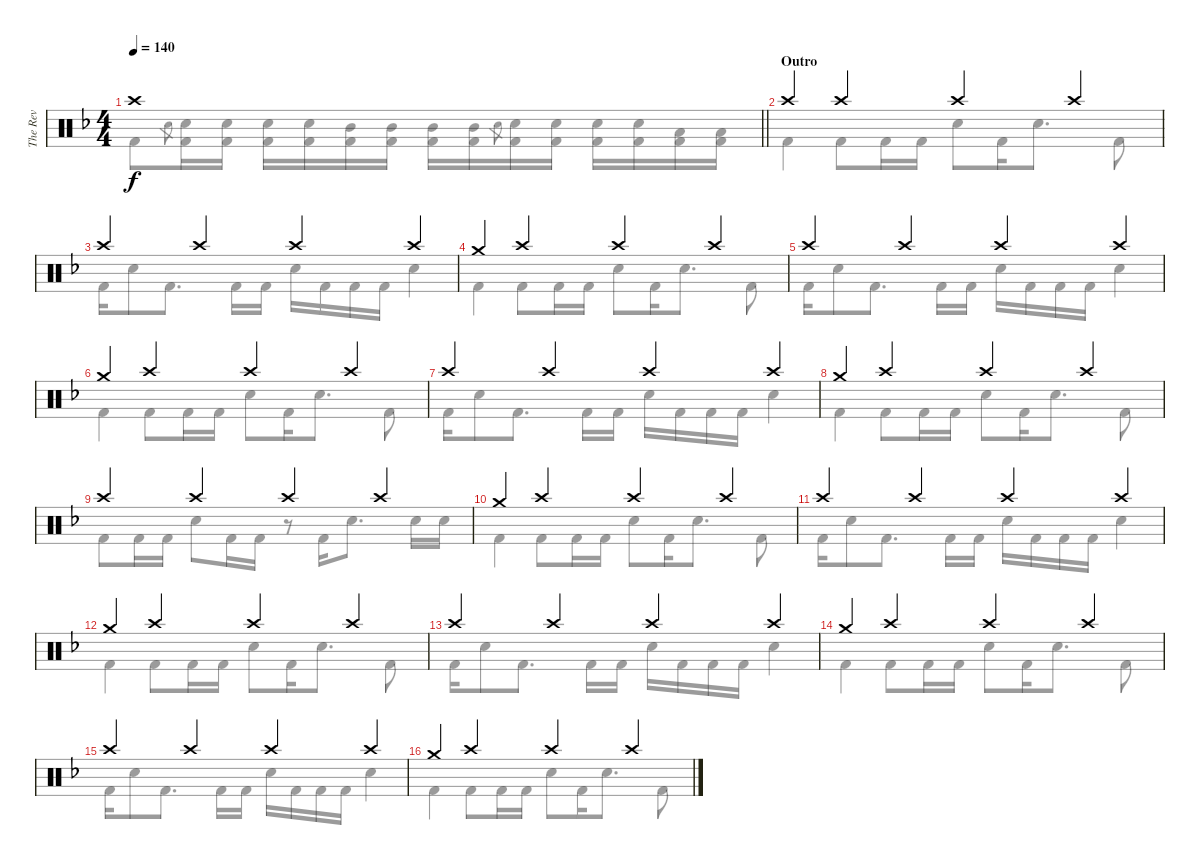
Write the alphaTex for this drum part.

\track ("The Rev" "The Rev") {instrument percussion}
\staff {score}
\articulation defaults
\voice
\ts (4 4)
\tempo 140
\clef neutral
\barLineRight lightlight
\ks dminor "Crash high (hit)".1{dy f}
|
\section ("" "Outro")
"Crash high (hit)".4 "Crash high (hit)".4 "Crash high (hit)".4 "Crash high (hit)".4 |
"Crash high (hit)".4 "Crash high (hit)".4 "Crash high (hit)".4 "Crash high (hit)".4 |
"Crash medium (hit)".4 "Crash high (hit)".4 "Crash high (hit)".4 "Crash high (hit)".4 |
"Crash high (hit)".4 "Crash high (hit)".4 "Crash high (hit)".4 "Crash high (hit)".4 |
"Crash medium (hit)".4 "Crash high (hit)".4 "Crash high (hit)".4 "Crash high (hit)".4 |
"Crash high (hit)".4 "Crash high (hit)".4 "Crash high (hit)".4 "Crash high (hit)".4 |
"Crash medium (hit)".4 "Crash high (hit)".4 "Crash high (hit)".4 "Crash high (hit)".4 |
"Crash high (hit)".4 "Crash high (hit)".4 "Crash high (hit)".4 "Crash high (hit)".4 |
"Crash medium (hit)".4 "Crash high (hit)".4 "Crash high (hit)".4 "Crash high (hit)".4 |
"Crash high (hit)".4 "Crash high (hit)".4 "Crash high (hit)".4 "Crash high (hit)".4 |
"Crash medium (hit)".4 "Crash high (hit)".4 "Crash high (hit)".4 "Crash high (hit)".4 |
"Crash high (hit)".4 "Crash high (hit)".4 "Crash high (hit)".4 "Crash high (hit)".4 |
"Crash medium (hit)".4 "Crash high (hit)".4 "Crash high (hit)".4 "Crash high (hit)".4 |
"Crash high (hit)".4 "Crash high (hit)".4 "Crash high (hit)".4 "Crash high (hit)".4 |
"Crash medium (hit)".4 "Crash high (hit)".4 "Crash high (hit)".4 "Crash high (hit)".4
\voice
\clef neutral
\ottava regular
\simile none
\barLineRight lightlight
\ks dminor "Kick (hit) 2".8{dy f} "Electric Snare (hit)".8{gr}
("Electric Snare (hit)" "Kick (hit) 2").16 ("Electric Snare (hit)" "Kick (hit) 2").16 ("Electric Snare (hit)" "Kick (hit) 2").16 ("Electric Snare (hit)" "Kick (hit) 2").16 ("Mid Tom (hit)" "Kick (hit) 2").16 ("Mid Tom (hit)" "Kick (hit) 2").16 ("Mid Tom (hit)" "Kick (hit) 2").16 ("Mid Tom (hit)" "Kick (hit) 2").16 "Electric Snare (hit)".8{gr} ("Electric Snare (hit)" "Kick (hit) 2").16 ("Electric Snare (hit)" "Kick (hit) 2").16 ("Electric Snare (hit)" "Kick (hit) 2").16 ("Electric Snare (hit)" "Kick (hit) 2").16 ("Low Tom (hit)" "Kick (hit) 2").16 ("Low Tom (hit)" "Kick (hit) 2").16 |
"Kick (hit) 2".4 "Kick (hit) 2".8 "Kick (hit) 2".16 "Kick (hit) 2".16 "Electric Snare (hit)".8 "Kick (hit) 2".16 "Electric Snare (hit)".8{d} "Kick (hit) 2".8 |
"Kick (hit) 2".16 "Electric Snare (hit)".8 "Kick (hit) 2".8{d} "Kick (hit) 2".16 "Kick (hit) 2".16 "Electric Snare (hit)".16 "Kick (hit) 2".16 "Kick (hit) 2".16 "Kick (hit) 2".16 "Electric Snare (hit)".4 |
"Kick (hit) 2".4 "Kick (hit) 2".8 "Kick (hit) 2".16 "Kick (hit) 2".16 "Electric Snare (hit)".8 "Kick (hit) 2".16 "Electric Snare (hit)".8{d} "Kick (hit) 2".8 |
"Kick (hit) 2".16 "Electric Snare (hit)".8 "Kick (hit) 2".8{d} "Kick (hit) 2".16 "Kick (hit) 2".16 "Electric Snare (hit)".16 "Kick (hit) 2".16 "Kick (hit) 2".16 "Kick (hit) 2".16 "Electric Snare (hit)".4 |
"Kick (hit) 2".4 "Kick (hit) 2".8 "Kick (hit) 2".16 "Kick (hit) 2".16 "Electric Snare (hit)".8 "Kick (hit) 2".16 "Electric Snare (hit)".8{d} "Kick (hit) 2".8 |
"Kick (hit) 2".16 "Electric Snare (hit)".8 "Kick (hit) 2".8{d} "Kick (hit) 2".16 "Kick (hit) 2".16 "Electric Snare (hit)".16 "Kick (hit) 2".16 "Kick (hit) 2".16 "Kick (hit) 2".16 "Electric Snare (hit)".4 |
"Kick (hit) 2".4 "Kick (hit) 2".8 "Kick (hit) 2".16 "Kick (hit) 2".16 "Electric Snare (hit)".8 "Kick (hit) 2".16 "Electric Snare (hit)".8{d} "Kick (hit) 2".8 |
"Kick (hit) 2".8 "Kick (hit) 2".16 "Kick (hit) 2".16 "Electric Snare (hit)".8 "Kick (hit) 2".16 "Kick (hit) 2".16 r.8 "Kick (hit) 2".16 "Electric Snare (hit)".8{d} "Electric Snare (hit)".16 "Electric Snare (hit)".16 |
"Kick (hit) 2".4 "Kick (hit) 2".8 "Kick (hit) 2".16 "Kick (hit) 2".16 "Electric Snare (hit)".8 "Kick (hit) 2".16 "Electric Snare (hit)".8{d} "Kick (hit) 2".8 |
"Kick (hit) 2".16 "Electric Snare (hit)".8 "Kick (hit) 2".8{d} "Kick (hit) 2".16 "Kick (hit) 2".16 "Electric Snare (hit)".16 "Kick (hit) 2".16 "Kick (hit) 2".16 "Kick (hit) 2".16 "Electric Snare (hit)".4 |
"Kick (hit) 2".4 "Kick (hit) 2".8 "Kick (hit) 2".16 "Kick (hit) 2".16 "Electric Snare (hit)".8 "Kick (hit) 2".16 "Electric Snare (hit)".8{d} "Kick (hit) 2".8 |
"Kick (hit) 2".16 "Electric Snare (hit)".8 "Kick (hit) 2".8{d} "Kick (hit) 2".16 "Kick (hit) 2".16 "Electric Snare (hit)".16 "Kick (hit) 2".16 "Kick (hit) 2".16 "Kick (hit) 2".16 "Electric Snare (hit)".4 |
"Kick (hit) 2".4 "Kick (hit) 2".8 "Kick (hit) 2".16 "Kick (hit) 2".16 "Electric Snare (hit)".8 "Kick (hit) 2".16 "Electric Snare (hit)".8{d} "Kick (hit) 2".8 |
"Kick (hit) 2".16 "Electric Snare (hit)".8 "Kick (hit) 2".8{d} "Kick (hit) 2".16 "Kick (hit) 2".16 "Electric Snare (hit)".16 "Kick (hit) 2".16 "Kick (hit) 2".16 "Kick (hit) 2".16 "Electric Snare (hit)".4 |
"Kick (hit) 2".4 "Kick (hit) 2".8 "Kick (hit) 2".16 "Kick (hit) 2".16 "Electric Snare (hit)".8 "Kick (hit) 2".16 "Electric Snare (hit)".8{d} "Kick (hit) 2".8
